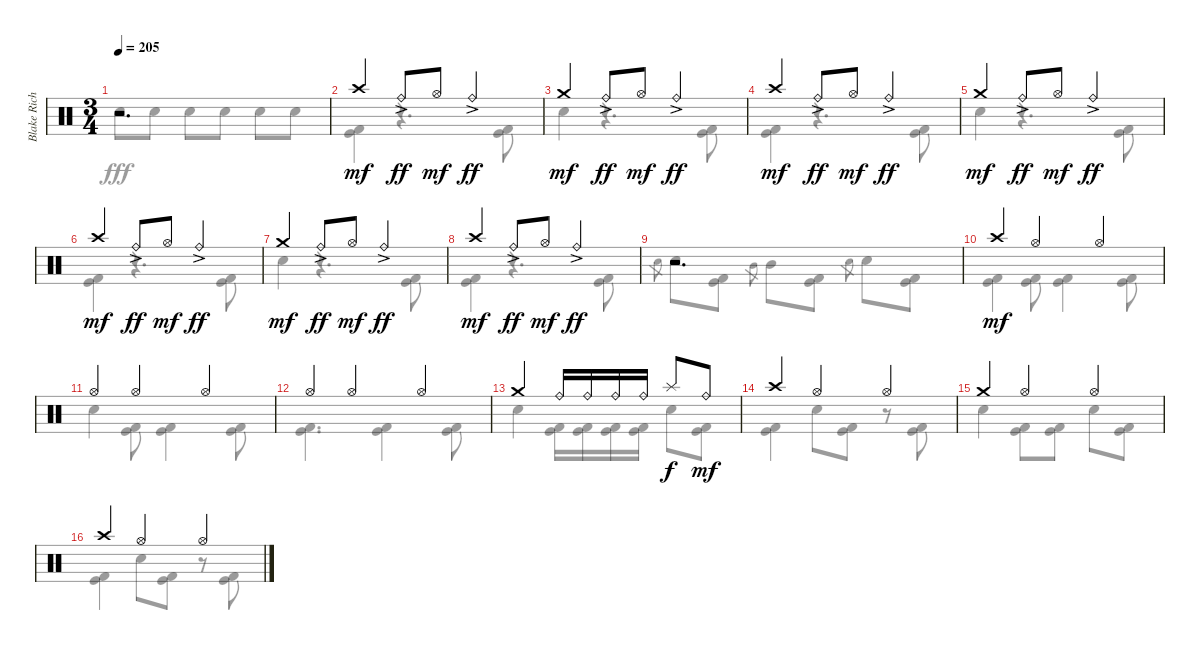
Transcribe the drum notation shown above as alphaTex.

\track ("Blake Richardson Drums" "Blake Rich") {instrument percussion}
\staff {score}
\articulation defaults
\voice
\ts (3 4)
\tempo 205
\clef neutral
\ks c
r.2{d dy mf} |
"Crash high (hit)".4 "Ride (bell)"{ac}.8{dy ff} "Hi-Hat (open)".8{dy mf} "Ride (bell)"{ac}.4{dy ff} |
"Crash medium (hit)".4{dy mf} "Ride (bell)"{ac}.8{dy ff} "Hi-Hat (open)".8{dy mf} "Ride (bell)"{ac}.4{dy ff} |
"Crash high (hit)".4{dy mf} "Ride (bell)"{ac}.8{dy ff} "Hi-Hat (open)".8{dy mf} "Ride (bell)"{ac}.4{dy ff} |
"Crash medium (hit)".4{dy mf} "Ride (bell)"{ac}.8{dy ff} "Hi-Hat (open)".8{dy mf} "Ride (bell)"{ac}.4{dy ff} |
"Crash high (hit)".4{dy mf} "Ride (bell)"{ac}.8{dy ff} "Hi-Hat (open)".8{dy mf} "Ride (bell)"{ac}.4{dy ff} |
"Crash medium (hit)".4{dy mf} "Ride (bell)"{ac}.8{dy ff} "Hi-Hat (open)".8{dy mf} "Ride (bell)"{ac}.4{dy ff} |
"Crash high (hit)".4{dy mf} "Ride (bell)"{ac}.8{dy ff} "Hi-Hat (open)".8{dy mf} "Ride (bell)"{ac}.4{dy ff} |
r.2{d} |
"Crash high (hit)".4{dy mf} "Hi-Hat (open)".4 "Hi-Hat (open)".4 |
"Hi-Hat (open)".4 "Hi-Hat (open)".4 "Hi-Hat (open)".4 |
"Hi-Hat (open)".4 "Hi-Hat (open)".4 "Hi-Hat (open)".4 |
"Crash medium (hit)".4 "Ride (bell)".16 "Ride (bell)".16 "Ride (bell)".16 "Ride (bell)".16 "Splash (hit)".8{dy f} "Ride (bell)".8{dy mf} |
"Crash high (hit)".4 "Hi-Hat (open)".4 "Hi-Hat (open)".4 |
"Crash medium (hit)".4 "Hi-Hat (open)".4 "Hi-Hat (open)".4 |
"Crash high (hit)".4 "Hi-Hat (open)".4 "Hi-Hat (open)".4
\voice
\clef neutral
\ottava regular
\simile none
\ks c "Electric Snare (hit)".8{dy fff} "Electric Snare (hit)".8 "Electric Snare (hit)".8 "Electric Snare (hit)".8 "Electric Snare (hit)".8 "Electric Snare (hit)".8
|
("Kick (hit)" "Kick (hit) 2").4 r.4{d} ("Kick (hit)" "Kick (hit) 2").8 |
"Electric Snare (hit)".4 r.4{d} ("Kick (hit)" "Kick (hit) 2").8 |
("Kick (hit)" "Kick (hit) 2").4 r.4{d} ("Kick (hit)" "Kick (hit) 2").8 |
"Electric Snare (hit)".4 r.4{d} ("Kick (hit)" "Kick (hit) 2").8 |
("Kick (hit)" "Kick (hit) 2").4 r.4{d} ("Kick (hit)" "Kick (hit) 2").8 |
"Electric Snare (hit)".4 r.4{d} ("Kick (hit)" "Kick (hit) 2").8 |
("Kick (hit)" "Kick (hit) 2").4 r.4{d} ("Kick (hit)" "Kick (hit) 2").8 |
"Electric Snare (hit)".8{gr} "Electric Snare (hit)".8 ("Kick (hit)" "Kick (hit) 2").8 "Mid Tom (hit)".8{gr} "Mid Tom (hit)".8 ("Kick (hit)" "Kick (hit) 2").8 "Electric Snare (hit)".8{gr} "Electric Snare (hit)".8 ("Kick (hit)" "Kick (hit) 2").8 |
("Kick (hit)" "Kick (hit) 2").4 ("Kick (hit)" "Kick (hit) 2").8 ("Kick (hit)" "Kick (hit) 2").4 ("Kick (hit)" "Kick (hit) 2").8 |
"Electric Snare (hit)".4 ("Kick (hit)" "Kick (hit) 2").8 ("Kick (hit)" "Kick (hit) 2").4 ("Kick (hit)" "Kick (hit) 2").8 |
("Kick (hit)" "Kick (hit) 2").4{d} ("Kick (hit)" "Kick (hit) 2").4 ("Kick (hit)" "Kick (hit) 2").8 |
"Electric Snare (hit)".4 ("Kick (hit)" "Kick (hit) 2").16 ("Kick (hit)" "Kick (hit) 2").16 ("Kick (hit)" "Kick (hit) 2").16 ("Kick (hit)" "Kick (hit) 2").16 "Electric Snare (hit)".8 ("Kick (hit)" "Kick (hit) 2").8 |
("Kick (hit)" "Kick (hit) 2").4 "Electric Snare (hit)".8 ("Kick (hit)" "Kick (hit) 2").8 r.8 ("Kick (hit)" "Kick (hit) 2").8 |
"Electric Snare (hit)".4 ("Kick (hit)" "Kick (hit) 2").8 ("Kick (hit)" "Kick (hit) 2").8 "Electric Snare (hit)".8 ("Kick (hit)" "Kick (hit) 2").8 |
("Kick (hit)" "Kick (hit) 2").4 "Electric Snare (hit)".8 ("Kick (hit)" "Kick (hit) 2").8 r.8 ("Kick (hit)" "Kick (hit) 2").8
